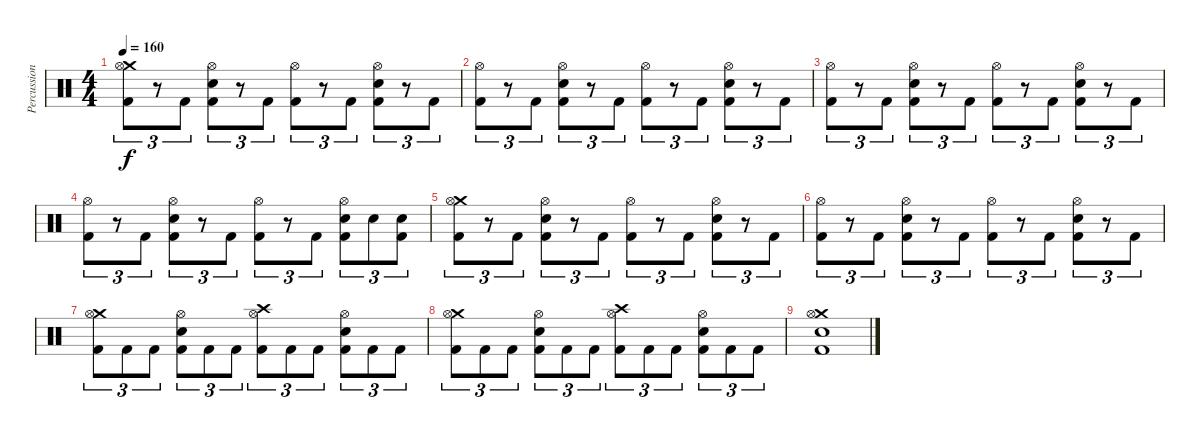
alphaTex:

\track ("Percussion" "Percussion") {instrument percussion}
\staff {score}
\articulation defaults
\ts (4 4)
\tempo 160
\clef neutral
\ks c
("Crash medium (hit)" "Hi-Hat (open)" "Kick (hit) 2").8{tu (3 2) dy f} r.8{tu (3 2)} "Kick (hit) 2".8{tu (3 2)} ("Hi-Hat (open)" "Electric Snare (hit)" "Kick (hit) 2").8{tu (3 2)} r.8{tu (3 2)} "Kick (hit) 2".8{tu (3 2)} ("Hi-Hat (open)" "Kick (hit) 2").8{tu (3 2)} r.8{tu (3 2)} "Kick (hit) 2".8{tu (3 2)} ("Hi-Hat (open)" "Electric Snare (hit)" "Kick (hit) 2").8{tu (3 2)} r.8{tu (3 2)} "Kick (hit) 2".8{tu (3 2)} |
("Hi-Hat (open)" "Kick (hit) 2").8{tu (3 2)} r.8{tu (3 2)} "Kick (hit) 2".8{tu (3 2)} ("Hi-Hat (open)" "Electric Snare (hit)" "Kick (hit) 2").8{tu (3 2)} r.8{tu (3 2)} "Kick (hit) 2".8{tu (3 2)} ("Hi-Hat (open)" "Kick (hit) 2").8{tu (3 2)} r.8{tu (3 2)} "Kick (hit) 2".8{tu (3 2)} ("Hi-Hat (open)" "Electric Snare (hit)" "Kick (hit) 2").8{tu (3 2)} r.8{tu (3 2)} "Kick (hit) 2".8{tu (3 2)} |
("Hi-Hat (open)" "Kick (hit) 2").8{tu (3 2)} r.8{tu (3 2)} "Kick (hit) 2".8{tu (3 2)} ("Hi-Hat (open)" "Electric Snare (hit)" "Kick (hit) 2").8{tu (3 2)} r.8{tu (3 2)} "Kick (hit) 2".8{tu (3 2)} ("Hi-Hat (open)" "Kick (hit) 2").8{tu (3 2)} r.8{tu (3 2)} "Kick (hit) 2".8{tu (3 2)} ("Hi-Hat (open)" "Electric Snare (hit)" "Kick (hit) 2").8{tu (3 2)} r.8{tu (3 2)} "Kick (hit) 2".8{tu (3 2)} |
("Hi-Hat (open)" "Kick (hit) 2").8{tu (3 2)} r.8{tu (3 2)} "Kick (hit) 2".8{tu (3 2)} ("Hi-Hat (open)" "Electric Snare (hit)" "Kick (hit) 2").8{tu (3 2)} r.8{tu (3 2)} "Kick (hit) 2".8{tu (3 2)} ("Hi-Hat (open)" "Kick (hit) 2").8{tu (3 2)} r.8{tu (3 2)} "Kick (hit) 2".8{tu (3 2)} ("Hi-Hat (open)" "Electric Snare (hit)" "Kick (hit) 2").8{tu (3 2)} "Electric Snare (hit)".8{tu (3 2)} ("Electric Snare (hit)" "Kick (hit) 2").8{tu (3 2)} |
("Crash medium (hit)" "Hi-Hat (open)" "Kick (hit) 2").8{tu (3 2)} r.8{tu (3 2)} "Kick (hit) 2".8{tu (3 2)} ("Hi-Hat (open)" "Electric Snare (hit)" "Kick (hit) 2").8{tu (3 2)} r.8{tu (3 2)} "Kick (hit) 2".8{tu (3 2)} ("Hi-Hat (open)" "Kick (hit) 2").8{tu (3 2)} r.8{tu (3 2)} "Kick (hit) 2".8{tu (3 2)} ("Hi-Hat (open)" "Electric Snare (hit)" "Kick (hit) 2").8{tu (3 2)} r.8{tu (3 2)} "Kick (hit) 2".8{tu (3 2)} |
("Hi-Hat (open)" "Kick (hit) 2").8{tu (3 2)} r.8{tu (3 2)} "Kick (hit) 2".8{tu (3 2)} ("Hi-Hat (open)" "Electric Snare (hit)" "Kick (hit) 2").8{tu (3 2)} r.8{tu (3 2)} "Kick (hit) 2".8{tu (3 2)} ("Hi-Hat (open)" "Kick (hit) 2").8{tu (3 2)} r.8{tu (3 2)} "Kick (hit) 2".8{tu (3 2)} ("Hi-Hat (open)" "Electric Snare (hit)" "Kick (hit) 2").8{tu (3 2)} r.8{tu (3 2)} "Kick (hit) 2".8{tu (3 2)} |
("Crash medium (hit)" "Hi-Hat (open)" "Kick (hit) 2").8{tu (3 2)} "Kick (hit) 2".8{tu (3 2)} "Kick (hit) 2".8{tu (3 2)} ("Hi-Hat (open)" "Electric Snare (hit)" "Kick (hit) 2").8{tu (3 2)} "Kick (hit) 2".8{tu (3 2)} "Kick (hit) 2".8{tu (3 2)} ("Crash high (hit)" "Hi-Hat (open)" "Kick (hit) 2").8{tu (3 2)} "Kick (hit) 2".8{tu (3 2)} "Kick (hit) 2".8{tu (3 2)} ("Hi-Hat (open)" "Electric Snare (hit)" "Kick (hit) 2").8{tu (3 2)} "Kick (hit) 2".8{tu (3 2)} "Kick (hit) 2".8{tu (3 2)} |
("Crash medium (hit)" "Hi-Hat (open)" "Kick (hit) 2").8{tu (3 2)} "Kick (hit) 2".8{tu (3 2)} "Kick (hit) 2".8{tu (3 2)} ("Hi-Hat (open)" "Electric Snare (hit)" "Kick (hit) 2").8{tu (3 2)} "Kick (hit) 2".8{tu (3 2)} "Kick (hit) 2".8{tu (3 2)} ("Crash high (hit)" "Hi-Hat (open)" "Kick (hit) 2").8{tu (3 2)} "Kick (hit) 2".8{tu (3 2)} "Kick (hit) 2".8{tu (3 2)} ("Hi-Hat (open)" "Electric Snare (hit)" "Kick (hit) 2").8{tu (3 2)} "Kick (hit) 2".8{tu (3 2)} "Kick (hit) 2".8{tu (3 2)} |
("Crash medium (hit)" "Hi-Hat (open)" "Electric Snare (hit)" "Kick (hit) 2").1
